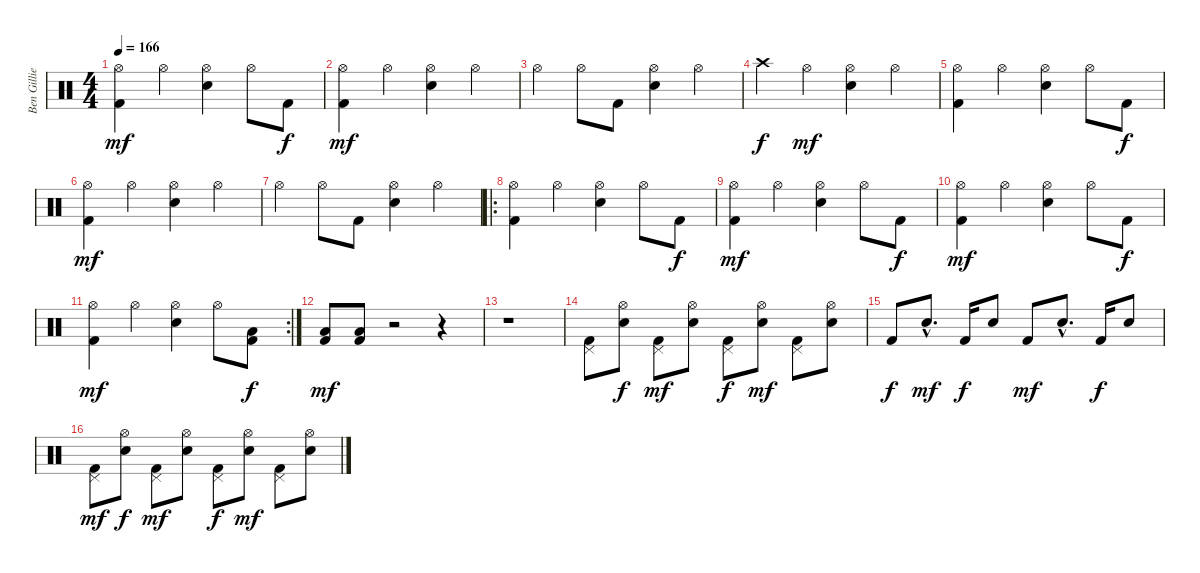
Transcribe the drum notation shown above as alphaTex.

\track ("Ben Gillies" "Ben Gillie") {instrument percussion}
\staff {score}
\articulation defaults
\ts (4 4)
\tempo 166
\clef neutral
\ks c
("Hi-Hat (open)" "Kick (hit) 2").4{dy mf} "Hi-Hat (open)".4 ("Hi-Hat (open)" "Electric Snare (hit)").4 "Hi-Hat (open)".8 "Kick (hit) 2".8{dy f} |
("Hi-Hat (open)" "Kick (hit) 2").4{dy mf} "Hi-Hat (open)".4 ("Hi-Hat (open)" "Electric Snare (hit)").4 "Hi-Hat (open)".4 |
"Hi-Hat (open)".4 "Hi-Hat (open)".8 "Kick (hit) 2".8 ("Hi-Hat (open)" "Electric Snare (hit)").4 "Hi-Hat (open)".4 |
"Crash high (hit)".4{dy f} "Hi-Hat (open)".4{dy mf} ("Hi-Hat (open)" "Electric Snare (hit)").4 "Hi-Hat (open)".4 |
("Hi-Hat (open)" "Kick (hit) 2").4 "Hi-Hat (open)".4 ("Hi-Hat (open)" "Electric Snare (hit)").4 "Hi-Hat (open)".8 "Kick (hit) 2".8{dy f} |
("Hi-Hat (open)" "Kick (hit) 2").4{dy mf} "Hi-Hat (open)".4 ("Hi-Hat (open)" "Electric Snare (hit)").4 "Hi-Hat (open)".4 |
"Hi-Hat (open)".4 "Hi-Hat (open)".8 "Kick (hit) 2".8 ("Hi-Hat (open)" "Electric Snare (hit)").4 "Hi-Hat (open)".4 |
\ro
("Hi-Hat (open)" "Kick (hit) 2").4 "Hi-Hat (open)".4 ("Hi-Hat (open)" "Electric Snare (hit)").4 "Hi-Hat (open)".8 "Kick (hit) 2".8{dy f} |
("Hi-Hat (open)" "Kick (hit) 2").4{dy mf} "Hi-Hat (open)".4 ("Hi-Hat (open)" "Electric Snare (hit)").4 "Hi-Hat (open)".8 "Kick (hit) 2".8{dy f} |
("Hi-Hat (open)" "Kick (hit) 2").4{dy mf} "Hi-Hat (open)".4 ("Hi-Hat (open)" "Electric Snare (hit)").4 "Hi-Hat (open)".8 "Kick (hit) 2".8{dy f} |
\rc 2
("Hi-Hat (open)" "Kick (hit) 2").4{dy mf} "Hi-Hat (open)".4 ("Hi-Hat (open)" "Electric Snare (hit)").4 "Hi-Hat (open)".8 ("Low Floor Tom (hit)" "Kick (hit) 2").8{dy f} |
("Low Floor Tom (hit)" "Kick (hit) 2").8{dy mf} ("Low Floor Tom (hit)" "Kick (hit) 2").8 r.2 r.4 |
r.1 |
("Pedal Hi-Hat (hit)" "Kick (hit) 2").8 ("Hi-Hat (open)" "Electric Snare (hit)").8{dy f} ("Pedal Hi-Hat (hit)" "Kick (hit) 2").8{dy mf} ("Hi-Hat (open)" "Electric Snare (hit)").8 ("Pedal Hi-Hat (hit)" "Kick (hit) 2").8{dy f} ("Hi-Hat (open)" "Electric Snare (hit)").8{dy mf} ("Pedal Hi-Hat (hit)" "Kick (hit) 2").8 ("Hi-Hat (open)" "Electric Snare (hit)").8 |
"Kick (hit) 2".8{dy f} "Electric Snare (hit)"{hac}.8{d dy mf} "Kick (hit) 2".16{dy f} "Electric Snare (hit)".8 "Kick (hit) 2".8{dy mf} "Electric Snare (hit)"{hac}.8{d} "Kick (hit) 2".16{dy f} "Electric Snare (hit)".8 |
("Pedal Hi-Hat (hit)" "Kick (hit) 2").8{dy mf} ("Hi-Hat (open)" "Electric Snare (hit)").8{dy f} ("Pedal Hi-Hat (hit)" "Kick (hit) 2").8{dy mf} ("Hi-Hat (open)" "Electric Snare (hit)").8 ("Pedal Hi-Hat (hit)" "Kick (hit) 2").8{dy f} ("Hi-Hat (open)" "Electric Snare (hit)").8{dy mf} ("Pedal Hi-Hat (hit)" "Kick (hit) 2").8 ("Hi-Hat (open)" "Electric Snare (hit)").8
